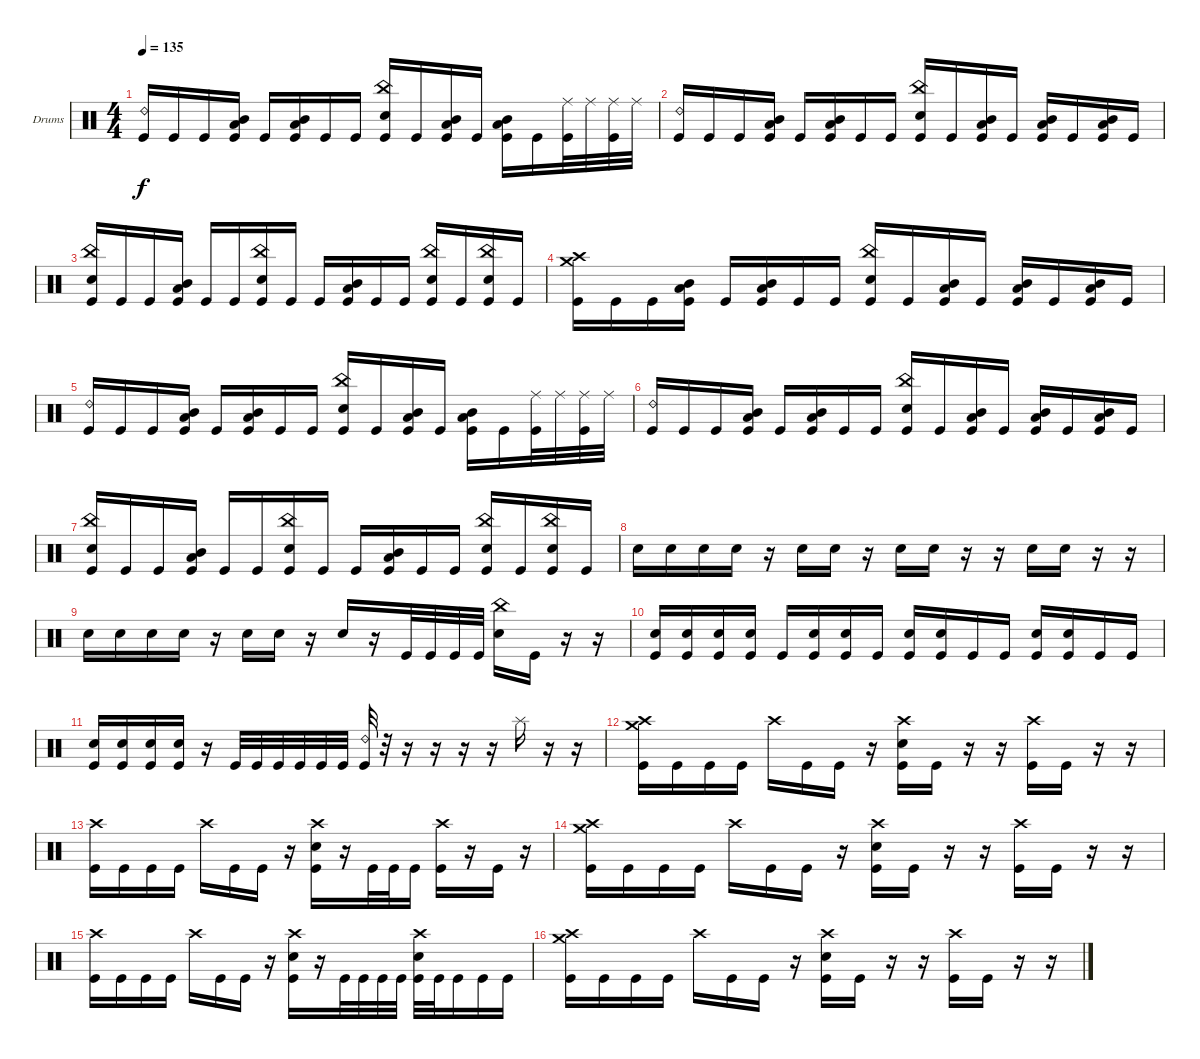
\bracketExtendMode groupsimilarinstruments
\firstSystemTrackNameOrientation horizontal
\otherSystemsTrackNameOrientation horizontal
\track ("Drumkit" "Drums") {instrument percussion}
\staff {score}
\articulation defaults
\ts (4 4)
\tempo 135
\clef neutral
\ks c
("Ride (bell) 2" "Kick (hit)").16{dy f} "Kick (hit)".16 "Kick (hit)".16 ("Mid Tom (hit)" "Low Tom (hit)" "Kick (hit)").16 "Kick (hit)".16 ("Mid Tom (hit)" "Low Tom (hit)" "Kick (hit)").16 "Kick (hit)".16 "Kick (hit)".16 ("China (hit)" "Snare (hit) 2" "Kick (hit)").16 "Kick (hit)".16 ("Mid Tom (hit)" "Low Tom (hit)" "Kick (hit)").16 "Kick (hit)".16 ("Mid Tom (hit)" "Low Tom (hit)" "Kick (hit)").16 "Kick (hit)".16 ("Ride (middle)" "Kick (hit)").32 "Ride (middle)".32 ("Ride (middle)" "Kick (hit)").32 "Ride (middle)".32 |
("Ride (bell) 2" "Kick (hit)").16 "Kick (hit)".16 "Kick (hit)".16 ("Mid Tom (hit)" "Low Tom (hit)" "Kick (hit)").16 "Kick (hit)".16 ("Mid Tom (hit)" "Low Tom (hit)" "Kick (hit)").16 "Kick (hit)".16 "Kick (hit)".16 ("China (hit)" "Snare (hit) 2" "Kick (hit)").16 "Kick (hit)".16 ("Mid Tom (hit)" "Low Tom (hit)" "Kick (hit)").16 "Kick (hit)".16 ("Mid Tom (hit)" "Low Tom (hit)" "Kick (hit)").16 "Kick (hit)".16 ("Mid Tom (hit)" "Low Tom (hit)" "Kick (hit)").16 "Kick (hit)".16 |
("China (hit)" "Snare (hit) 2" "Kick (hit)").16 "Kick (hit)".16 "Kick (hit)".16 ("Mid Tom (hit)" "Low Tom (hit)" "Kick (hit)").16 "Kick (hit)".16 "Kick (hit)".16 ("China (hit)" "Snare (hit) 2" "Kick (hit)").16 "Kick (hit)".16 "Kick (hit)".16 ("Mid Tom (hit)" "Low Tom (hit)" "Kick (hit)").16 "Kick (hit)".16 "Kick (hit)".16 ("China (hit)" "Snare (hit) 2" "Kick (hit)").16 "Kick (hit)".16 ("China (hit)" "Snare (hit) 2" "Kick (hit)").16 "Kick (hit)".16 |
("Crash high (hit)" "Crash medium (hit)" "Kick (hit)").16 "Kick (hit)".16 "Kick (hit)".16 ("Mid Tom (hit)" "Low Tom (hit)" "Kick (hit)").16 "Kick (hit)".16 ("Mid Tom (hit)" "Low Tom (hit)" "Kick (hit)").16 "Kick (hit)".16 "Kick (hit)".16 ("China (hit)" "Snare (hit) 2" "Kick (hit)").16 "Kick (hit)".16 ("Mid Tom (hit)" "Low Tom (hit)" "Kick (hit)").16 "Kick (hit)".16 ("Mid Tom (hit)" "Low Tom (hit)" "Kick (hit)").16 "Kick (hit)".16 ("Mid Tom (hit)" "Low Tom (hit)" "Kick (hit)").16 "Kick (hit)".16 |
("Ride (bell) 2" "Kick (hit)").16 "Kick (hit)".16 "Kick (hit)".16 ("Mid Tom (hit)" "Low Tom (hit)" "Kick (hit)").16 "Kick (hit)".16 ("Mid Tom (hit)" "Low Tom (hit)" "Kick (hit)").16 "Kick (hit)".16 "Kick (hit)".16 ("China (hit)" "Snare (hit) 2" "Kick (hit)").16 "Kick (hit)".16 ("Mid Tom (hit)" "Low Tom (hit)" "Kick (hit)").16 "Kick (hit)".16 ("Mid Tom (hit)" "Low Tom (hit)" "Kick (hit)").16 "Kick (hit)".16 ("Ride (middle)" "Kick (hit)").32 "Ride (middle)".32 ("Ride (middle)" "Kick (hit)").32 "Ride (middle)".32 |
("Ride (bell) 2" "Kick (hit)").16 "Kick (hit)".16 "Kick (hit)".16 ("Mid Tom (hit)" "Low Tom (hit)" "Kick (hit)").16 "Kick (hit)".16 ("Mid Tom (hit)" "Low Tom (hit)" "Kick (hit)").16 "Kick (hit)".16 "Kick (hit)".16 ("China (hit)" "Snare (hit) 2" "Kick (hit)").16 "Kick (hit)".16 ("Mid Tom (hit)" "Low Tom (hit)" "Kick (hit)").16 "Kick (hit)".16 ("Mid Tom (hit)" "Low Tom (hit)" "Kick (hit)").16 "Kick (hit)".16 ("Mid Tom (hit)" "Low Tom (hit)" "Kick (hit)").16 "Kick (hit)".16 |
("China (hit)" "Snare (hit) 2" "Kick (hit)").16 "Kick (hit)".16 "Kick (hit)".16 ("Mid Tom (hit)" "Low Tom (hit)" "Kick (hit)").16 "Kick (hit)".16 "Kick (hit)".16 ("China (hit)" "Snare (hit) 2" "Kick (hit)").16 "Kick (hit)".16 "Kick (hit)".16 ("Mid Tom (hit)" "Low Tom (hit)" "Kick (hit)").16 "Kick (hit)".16 "Kick (hit)".16 ("China (hit)" "Snare (hit) 2" "Kick (hit)").16 "Kick (hit)".16 ("China (hit)" "Snare (hit) 2" "Kick (hit)").16 "Kick (hit)".16 |
"Snare (hit) 2".16 "Snare (hit) 2".16 "Snare (hit) 2".16 "Snare (hit) 2".16 r.16 "Snare (hit) 2".16 "Snare (hit) 2".16 r.16 "Snare (hit) 2".16 "Snare (hit) 2".16 r.16 r.16 "Snare (hit) 2".16 "Snare (hit) 2".16 r.16 r.16 |
"Snare (hit) 2".16 "Snare (hit) 2".16 "Snare (hit) 2".16 "Snare (hit) 2".16 r.16 "Snare (hit) 2".16 "Snare (hit) 2".16 r.16 "Snare (hit) 2".16 r.16 "Kick (hit)".32 "Kick (hit)".32 "Kick (hit)".32 "Kick (hit)".32 ("China (hit)" "Snare (hit) 2").16 "Kick (hit)".16 r.16 r.16 |
("Snare (hit) 2" "Kick (hit)").16 ("Snare (hit) 2" "Kick (hit)").16 ("Snare (hit) 2" "Kick (hit)").16 ("Snare (hit) 2" "Kick (hit)").16 "Kick (hit)".16 ("Snare (hit) 2" "Kick (hit)").16 ("Snare (hit) 2" "Kick (hit)").16 "Kick (hit)".16 ("Snare (hit) 2" "Kick (hit)").16 ("Snare (hit) 2" "Kick (hit)").16 "Kick (hit)".16 "Kick (hit)".16 ("Snare (hit) 2" "Kick (hit)").16 ("Snare (hit) 2" "Kick (hit)").16 "Kick (hit)".16 "Kick (hit)".16 |
("Snare (hit) 2" "Kick (hit)").16 ("Snare (hit) 2" "Kick (hit)").16 ("Snare (hit) 2" "Kick (hit)").16 ("Snare (hit) 2" "Kick (hit)").16 r.16 "Kick (hit)".32 "Kick (hit)".32 "Kick (hit)".32 "Kick (hit)".32 "Kick (hit)".32 "Kick (hit)".32 ("Ride (bell) 2" "Kick (hit)").32 r.32 r.16 r.16 r.16 r.16 "Splash (hit)".16 r.16 r.16 |
("Crash high (hit)" "Crash medium (hit)" "Kick (hit)").16 "Kick (hit)".16 "Kick (hit)".16 "Kick (hit)".16 "Crash high (hit)".16 "Kick (hit)".16 "Kick (hit)".16 r.16 ("Crash high (hit)" "Snare (hit) 2" "Kick (hit)").16 "Kick (hit)".16 r.16 r.16 ("Crash high (hit)" "Kick (hit)").16 "Kick (hit)".16 r.16 r.16 |
("Crash high (hit)" "Kick (hit)").16 "Kick (hit)".16 "Kick (hit)".16 "Kick (hit)".16 "Crash high (hit)".16 "Kick (hit)".16 "Kick (hit)".16 r.16 ("Crash high (hit)" "Snare (hit) 2" "Kick (hit)").16 r.16 "Kick (hit)".32 "Kick (hit)".32 "Kick (hit)".16 ("Crash high (hit)" "Kick (hit)").16 r.16 "Kick (hit)".16 r.16 |
("Crash high (hit)" "Crash medium (hit)" "Kick (hit)").16 "Kick (hit)".16 "Kick (hit)".16 "Kick (hit)".16 "Crash high (hit)".16 "Kick (hit)".16 "Kick (hit)".16 r.16 ("Crash high (hit)" "Snare (hit) 2" "Kick (hit)").16 "Kick (hit)".16 r.16 r.16 ("Crash high (hit)" "Kick (hit)").16 "Kick (hit)".16 r.16 r.16 |
("Crash high (hit)" "Kick (hit)").16 "Kick (hit)".16 "Kick (hit)".16 "Kick (hit)".16 "Crash high (hit)".16 "Kick (hit)".16 "Kick (hit)".16 r.16 ("Crash high (hit)" "Snare (hit) 2" "Kick (hit)").16 r.16 "Kick (hit)".32 "Kick (hit)".32 "Kick (hit)".32 "Kick (hit)".32 ("Crash high (hit)" "Snare (hit) 2" "Kick (hit)").32 "Kick (hit)".32 "Kick (hit)".16 "Kick (hit)".16 "Kick (hit)".16 |
("Crash high (hit)" "Crash medium (hit)" "Kick (hit)").16 "Kick (hit)".16 "Kick (hit)".16 "Kick (hit)".16 "Crash high (hit)".16 "Kick (hit)".16 "Kick (hit)".16 r.16 ("Crash high (hit)" "Snare (hit) 2" "Kick (hit)").16 "Kick (hit)".16 r.16 r.16 ("Crash high (hit)" "Kick (hit)").16 "Kick (hit)".16 r.16 r.16
